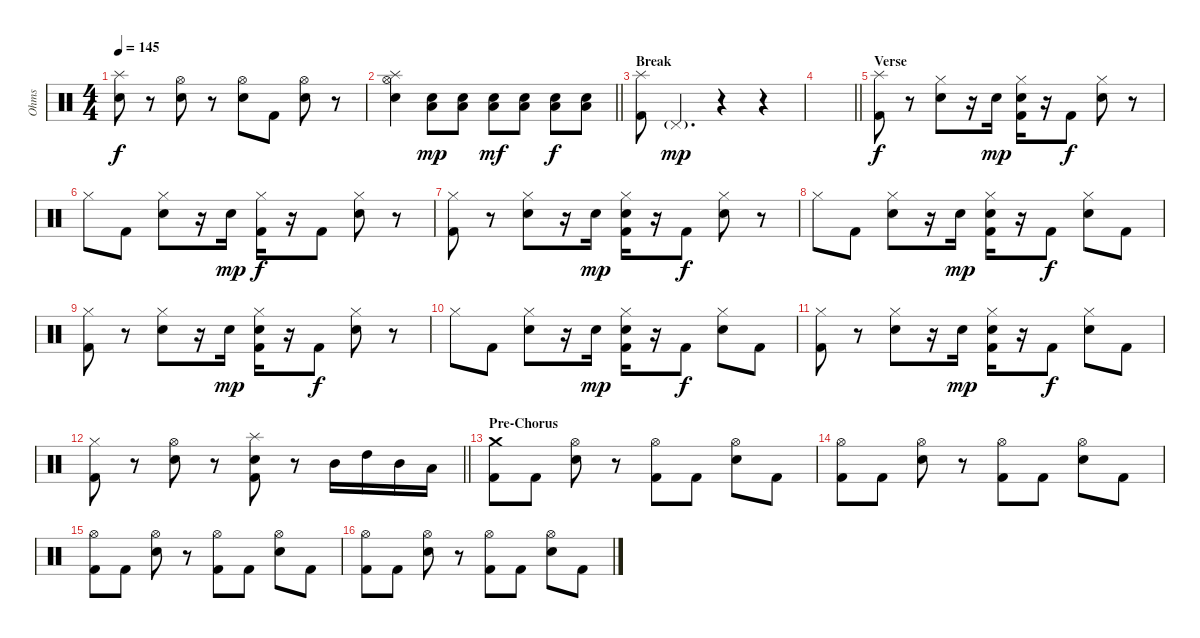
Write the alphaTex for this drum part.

\track ("Ohms" "Ohms") {instrument percussion}
\staff {score}
\articulation defaults
\ts (4 4)
\tempo 145
\clef neutral
\ks c
("Splash (hit)" "Snare (hit) 2").8{dy f} r.8 ("Hi-Hat (open)" "Snare (hit) 2").8 r.8 ("Hi-Hat (open)" "Snare (hit) 2").8 "Kick (hit) 2".8 ("Hi-Hat (open)" "Snare (hit) 2").8 r.8 |
\barLineRight lightlight
("Hi-Hat (open)" "Splash (hit)" "Snare (hit) 2").4 ("Low Tom (hit)" "Snare (hit) 2").8{dy mp} ("Low Tom (hit)" "Snare (hit) 2").8 ("Low Tom (hit)" "Snare (hit) 2").8{dy mf} ("Low Tom (hit)" "Snare (hit) 2").8 ("Low Tom (hit)" "Snare (hit) 2").8{dy f} ("Low Tom (hit)" "Snare (hit) 2").8 |
\section ("" "Break")
("Splash (hit)" "Kick (hit) 2").8 "Pedal Hi-Hat (hit)"{g}.4{d dy mp} r.4 r.4 |
\barLineRight lightlight
|
\section ("" "Verse")
("Splash (hit)" "Kick (hit) 2").8{dy f} r.8 ("Hi-Hat (closed)" "Snare (hit) 2").8 r.16 "Snare (hit) 2".16{dy mp} ("Hi-Hat (closed)" "Snare (hit) 2" "Kick (hit) 2").16 r.16 "Kick (hit) 2".8{dy f} ("Hi-Hat (closed)" "Snare (hit) 2").8 r.8 |
"Hi-Hat (closed)".8 "Kick (hit) 2".8 ("Hi-Hat (closed)" "Snare (hit) 2").8 r.16 "Snare (hit) 2".16{dy mp} ("Hi-Hat (closed)" "Kick (hit) 2").16{dy f} r.16 "Kick (hit) 2".8 ("Hi-Hat (closed)" "Snare (hit) 2").8 r.8 |
("Hi-Hat (closed)" "Kick (hit) 2").8 r.8 ("Hi-Hat (closed)" "Snare (hit) 2").8 r.16 "Snare (hit) 2".16{dy mp} ("Hi-Hat (closed)" "Snare (hit) 2" "Kick (hit) 2").16 r.16 "Kick (hit) 2".8{dy f} ("Hi-Hat (closed)" "Snare (hit) 2").8 r.8 |
"Hi-Hat (closed)".8 "Kick (hit) 2".8 ("Hi-Hat (closed)" "Snare (hit) 2").8 r.16 "Snare (hit) 2".16{dy mp} ("Hi-Hat (closed)" "Snare (hit) 2" "Kick (hit) 2").16 r.16 "Kick (hit) 2".8{dy f} ("Hi-Hat (closed)" "Snare (hit) 2").8 "Kick (hit) 2".8 |
("Hi-Hat (closed)" "Kick (hit) 2").8 r.8 ("Hi-Hat (closed)" "Snare (hit) 2").8 r.16 "Snare (hit) 2".16{dy mp} ("Hi-Hat (closed)" "Snare (hit) 2" "Kick (hit) 2").16 r.16 "Kick (hit) 2".8{dy f} ("Hi-Hat (closed)" "Snare (hit) 2").8 r.8 |
"Hi-Hat (closed)".8 "Kick (hit) 2".8 ("Hi-Hat (closed)" "Snare (hit) 2").8 r.16 "Snare (hit) 2".16{dy mp} ("Hi-Hat (closed)" "Snare (hit) 2" "Kick (hit) 2").16 r.16 "Kick (hit) 2".8{dy f} ("Hi-Hat (closed)" "Snare (hit) 2").8 "Kick (hit) 2".8 |
("Hi-Hat (closed)" "Kick (hit) 2").8 r.8 ("Hi-Hat (closed)" "Snare (hit) 2").8 r.16 "Snare (hit) 2".16{dy mp} ("Hi-Hat (closed)" "Snare (hit) 2" "Kick (hit) 2").16 r.16 "Kick (hit) 2".8{dy f} ("Hi-Hat (closed)" "Snare (hit) 2").8 "Kick (hit) 2".8 |
\barLineRight lightlight
("Hi-Hat (closed)" "Kick (hit) 2").8 r.8 ("Hi-Hat (open)" "Snare (hit) 2").8 r.8 ("Splash (hit)" "Snare (hit) 2" "Kick (hit) 2").8 r.8 "Mid Tom (hit)".16 "High Tom (hit)".16 "Mid Tom (hit)".16 "Low Tom (hit)".16 |
\section ("" "Pre-Chorus")
("Crash medium (hit)" "Kick (hit) 2").8 "Kick (hit) 2".8 ("Hi-Hat (open)" "Snare (hit) 2").8 r.8 ("Hi-Hat (open)" "Kick (hit) 2").8 "Kick (hit) 2".8 ("Hi-Hat (open)" "Snare (hit) 2").8 "Kick (hit) 2".8 |
("Hi-Hat (open)" "Kick (hit) 2").8 "Kick (hit) 2".8 ("Hi-Hat (open)" "Snare (hit) 2").8 r.8 ("Hi-Hat (open)" "Kick (hit) 2").8 "Kick (hit) 2".8 ("Hi-Hat (open)" "Snare (hit) 2").8 "Kick (hit) 2".8 |
("Hi-Hat (open)" "Kick (hit) 2").8 "Kick (hit) 2".8 ("Hi-Hat (open)" "Snare (hit) 2").8 r.8 ("Hi-Hat (open)" "Kick (hit) 2").8 "Kick (hit) 2".8 ("Hi-Hat (open)" "Snare (hit) 2").8 "Kick (hit) 2".8 |
("Hi-Hat (open)" "Kick (hit) 2").8 "Kick (hit) 2".8 ("Hi-Hat (open)" "Snare (hit) 2").8 r.8 ("Hi-Hat (open)" "Kick (hit) 2").8 "Kick (hit) 2".8 ("Hi-Hat (open)" "Snare (hit) 2").8 "Kick (hit) 2".8
